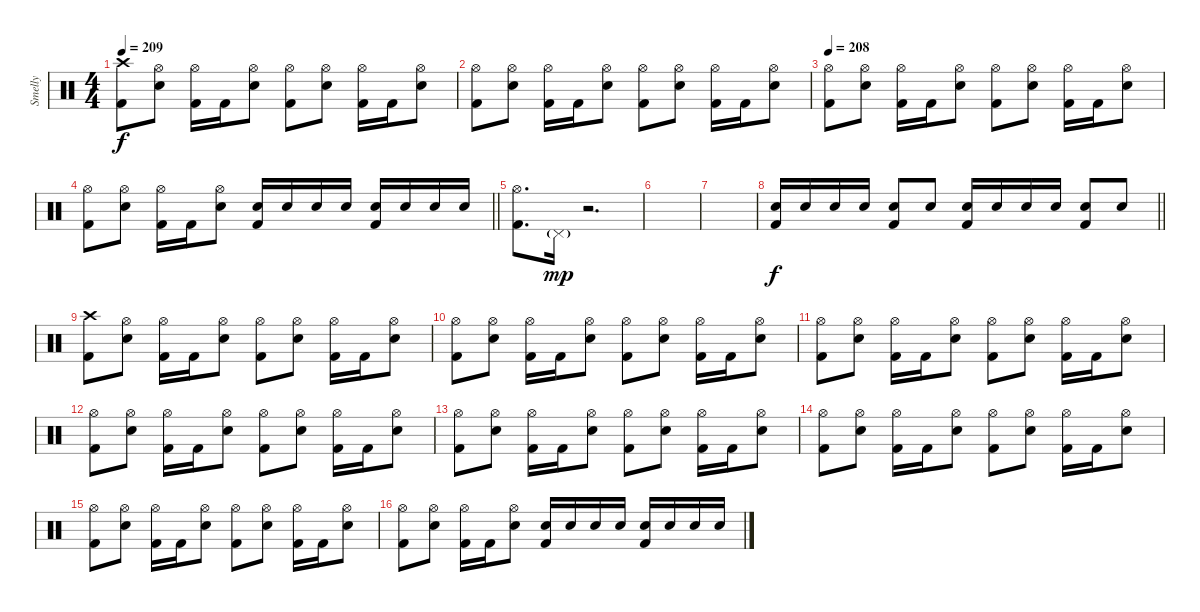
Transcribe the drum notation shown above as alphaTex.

\track ("Smelly" "Smelly") {instrument percussion}
\staff {score}
\articulation defaults
\ts (4 4)
\tempo 209
\clef neutral
\ks c
("Crash high (hit)" "Kick (hit) 2").8{dy f} ("Hi-Hat (open)" "Electric Snare (hit)").8 ("Hi-Hat (open)" "Kick (hit) 2").16 "Kick (hit) 2".16 ("Hi-Hat (open)" "Electric Snare (hit)").8 ("Hi-Hat (open)" "Kick (hit) 2").8 ("Hi-Hat (open)" "Electric Snare (hit)").8 ("Hi-Hat (open)" "Kick (hit) 2").16 "Kick (hit) 2".16 ("Hi-Hat (open)" "Electric Snare (hit)").8 |
("Hi-Hat (open)" "Kick (hit) 2").8 ("Hi-Hat (open)" "Electric Snare (hit)").8 ("Hi-Hat (open)" "Kick (hit) 2").16 "Kick (hit) 2".16 ("Hi-Hat (open)" "Electric Snare (hit)").8 ("Hi-Hat (open)" "Kick (hit) 2").8 ("Hi-Hat (open)" "Electric Snare (hit)").8 ("Hi-Hat (open)" "Kick (hit) 2").16 "Kick (hit) 2".16 ("Hi-Hat (open)" "Electric Snare (hit)").8 |
\tempo 208
("Hi-Hat (open)" "Kick (hit) 2").8 ("Hi-Hat (open)" "Electric Snare (hit)").8 ("Hi-Hat (open)" "Kick (hit) 2").16 "Kick (hit) 2".16 ("Hi-Hat (open)" "Electric Snare (hit)").8 ("Hi-Hat (open)" "Kick (hit) 2").8 ("Hi-Hat (open)" "Electric Snare (hit)").8 ("Hi-Hat (open)" "Kick (hit) 2").16 "Kick (hit) 2".16 ("Hi-Hat (open)" "Electric Snare (hit)").8 |
\barLineRight lightlight
("Hi-Hat (open)" "Kick (hit) 2").8 ("Hi-Hat (open)" "Electric Snare (hit)").8 ("Hi-Hat (open)" "Kick (hit) 2").16 "Kick (hit) 2".16 ("Hi-Hat (open)" "Electric Snare (hit)").8 ("Electric Snare (hit)" "Kick (hit) 2").16 "Electric Snare (hit)".16 "Electric Snare (hit)".16 "Electric Snare (hit)".16 ("Electric Snare (hit)" "Kick (hit) 2").16 "Electric Snare (hit)".16 "Electric Snare (hit)".16 "Electric Snare (hit)".16 |
\section ("" "")
("Hi-Hat (open)" "Kick (hit) 2").8{d} "Pedal Hi-Hat (hit)"{g}.16{dy mp} r.2{d} |
|
|
\barLineRight lightlight
("Electric Snare (hit)" "Kick (hit) 2").16{dy f} "Electric Snare (hit)".16 "Electric Snare (hit)".16 "Electric Snare (hit)".16 ("Electric Snare (hit)" "Kick (hit) 2").8 "Electric Snare (hit)".8 ("Electric Snare (hit)" "Kick (hit) 2").16 "Electric Snare (hit)".16 "Electric Snare (hit)".16 "Electric Snare (hit)".16 ("Electric Snare (hit)" "Kick (hit) 2").8 "Electric Snare (hit)".8 |
\section ("" "")
("Crash high (hit)" "Kick (hit) 2").8 ("Hi-Hat (open)" "Electric Snare (hit)").8 ("Hi-Hat (open)" "Kick (hit) 2").16 "Kick (hit) 2".16 ("Hi-Hat (open)" "Electric Snare (hit)").8 ("Hi-Hat (open)" "Kick (hit) 2").8 ("Hi-Hat (open)" "Electric Snare (hit)").8 ("Hi-Hat (open)" "Kick (hit) 2").16 "Kick (hit) 2".16 ("Hi-Hat (open)" "Electric Snare (hit)").8 |
("Hi-Hat (open)" "Kick (hit) 2").8 ("Hi-Hat (open)" "Electric Snare (hit)").8 ("Hi-Hat (open)" "Kick (hit) 2").16 "Kick (hit) 2".16 ("Hi-Hat (open)" "Electric Snare (hit)").8 ("Hi-Hat (open)" "Kick (hit) 2").8 ("Hi-Hat (open)" "Electric Snare (hit)").8 ("Hi-Hat (open)" "Kick (hit) 2").16 "Kick (hit) 2".16 ("Hi-Hat (open)" "Electric Snare (hit)").8 |
("Hi-Hat (open)" "Kick (hit) 2").8 ("Hi-Hat (open)" "Electric Snare (hit)").8 ("Hi-Hat (open)" "Kick (hit) 2").16 "Kick (hit) 2".16 ("Hi-Hat (open)" "Electric Snare (hit)").8 ("Hi-Hat (open)" "Kick (hit) 2").8 ("Hi-Hat (open)" "Electric Snare (hit)").8 ("Hi-Hat (open)" "Kick (hit) 2").16 "Kick (hit) 2".16 ("Hi-Hat (open)" "Electric Snare (hit)").8 |
("Hi-Hat (open)" "Kick (hit) 2").8 ("Hi-Hat (open)" "Electric Snare (hit)").8 ("Hi-Hat (open)" "Kick (hit) 2").16 "Kick (hit) 2".16 ("Hi-Hat (open)" "Electric Snare (hit)").8 ("Hi-Hat (open)" "Kick (hit) 2").8 ("Hi-Hat (open)" "Electric Snare (hit)").8 ("Hi-Hat (open)" "Kick (hit) 2").16 "Kick (hit) 2".16 ("Hi-Hat (open)" "Electric Snare (hit)").8 |
("Hi-Hat (open)" "Kick (hit) 2").8 ("Hi-Hat (open)" "Electric Snare (hit)").8 ("Hi-Hat (open)" "Kick (hit) 2").16 "Kick (hit) 2".16 ("Hi-Hat (open)" "Electric Snare (hit)").8 ("Hi-Hat (open)" "Kick (hit) 2").8 ("Hi-Hat (open)" "Electric Snare (hit)").8 ("Hi-Hat (open)" "Kick (hit) 2").16 "Kick (hit) 2".16 ("Hi-Hat (open)" "Electric Snare (hit)").8 |
("Hi-Hat (open)" "Kick (hit) 2").8 ("Hi-Hat (open)" "Electric Snare (hit)").8 ("Hi-Hat (open)" "Kick (hit) 2").16 "Kick (hit) 2".16 ("Hi-Hat (open)" "Electric Snare (hit)").8 ("Hi-Hat (open)" "Kick (hit) 2").8 ("Hi-Hat (open)" "Electric Snare (hit)").8 ("Hi-Hat (open)" "Kick (hit) 2").16 "Kick (hit) 2".16 ("Hi-Hat (open)" "Electric Snare (hit)").8 |
("Hi-Hat (open)" "Kick (hit) 2").8 ("Hi-Hat (open)" "Electric Snare (hit)").8 ("Hi-Hat (open)" "Kick (hit) 2").16 "Kick (hit) 2".16 ("Hi-Hat (open)" "Electric Snare (hit)").8 ("Hi-Hat (open)" "Kick (hit) 2").8 ("Hi-Hat (open)" "Electric Snare (hit)").8 ("Hi-Hat (open)" "Kick (hit) 2").16 "Kick (hit) 2".16 ("Hi-Hat (open)" "Electric Snare (hit)").8 |
("Hi-Hat (open)" "Kick (hit) 2").8 ("Hi-Hat (open)" "Electric Snare (hit)").8 ("Hi-Hat (open)" "Kick (hit) 2").16 "Kick (hit) 2".16 ("Hi-Hat (open)" "Electric Snare (hit)").8 ("Electric Snare (hit)" "Kick (hit) 2").16 "Electric Snare (hit)".16 "Electric Snare (hit)".16 "Electric Snare (hit)".16 ("Electric Snare (hit)" "Kick (hit) 2").16 "Electric Snare (hit)".16 "Electric Snare (hit)".16 "Electric Snare (hit)".16
